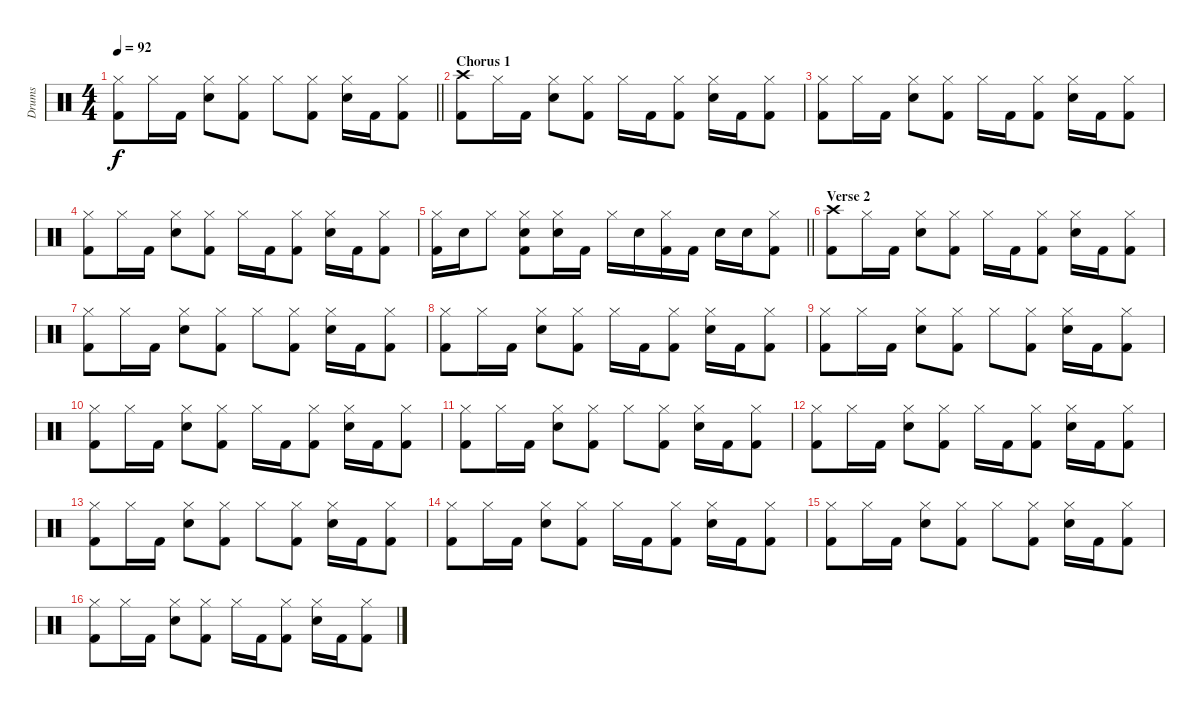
\track ("Drums" "Drums") {instrument percussion}
\staff {score}
\articulation defaults
\ts (4 4)
\tempo 92
\clef neutral
\barLineRight lightlight
\ks c
("Hi-Hat (closed)" "Kick (hit) 2").8{dy f} "Hi-Hat (closed)".16 "Kick (hit) 2".16 ("Hi-Hat (closed)" "Electric Snare (hit)").8 ("Hi-Hat (closed)" "Kick (hit) 2").8 "Hi-Hat (closed)".8 ("Hi-Hat (closed)" "Kick (hit) 2").8 ("Hi-Hat (closed)" "Electric Snare (hit)").16 "Kick (hit) 2".16 ("Hi-Hat (closed)" "Kick (hit) 2").8 |
\section ("" "Chorus 1")
("Crash high (hit)" "Kick (hit) 2").8 "Hi-Hat (closed)".16 "Kick (hit) 2".16 ("Hi-Hat (closed)" "Electric Snare (hit)").8 ("Hi-Hat (closed)" "Kick (hit) 2").8 "Hi-Hat (closed)".16 "Kick (hit) 2".16 ("Hi-Hat (closed)" "Kick (hit) 2").8 ("Hi-Hat (closed)" "Electric Snare (hit)").16 "Kick (hit) 2".16 ("Hi-Hat (closed)" "Kick (hit) 2").8 |
("Hi-Hat (closed)" "Kick (hit) 2").8 "Hi-Hat (closed)".16 "Kick (hit) 2".16 ("Hi-Hat (closed)" "Electric Snare (hit)").8 ("Hi-Hat (closed)" "Kick (hit) 2").8 "Hi-Hat (closed)".16 "Kick (hit) 2".16 ("Hi-Hat (closed)" "Kick (hit) 2").8 ("Hi-Hat (closed)" "Electric Snare (hit)").16 "Kick (hit) 2".16 ("Hi-Hat (closed)" "Kick (hit) 2").8 |
("Hi-Hat (closed)" "Kick (hit) 2").8 "Hi-Hat (closed)".16 "Kick (hit) 2".16 ("Hi-Hat (closed)" "Electric Snare (hit)").8 ("Hi-Hat (closed)" "Kick (hit) 2").8 "Hi-Hat (closed)".16 "Kick (hit) 2".16 ("Hi-Hat (closed)" "Kick (hit) 2").8 ("Hi-Hat (closed)" "Electric Snare (hit)").16 "Kick (hit) 2".16 ("Hi-Hat (closed)" "Kick (hit) 2").8 |
\barLineRight lightlight
("Hi-Hat (closed)" "Kick (hit) 2").16 "Electric Snare (hit)".16 "Hi-Hat (closed)".8 ("Hi-Hat (closed)" "Electric Snare (hit)" "Kick (hit) 2").8 ("Hi-Hat (closed)" "Electric Snare (hit)").16 "Kick (hit) 2".16 "Hi-Hat (closed)".16 "Electric Snare (hit)".16 ("Hi-Hat (closed)" "Kick (hit) 2").16 "Kick (hit) 2".16 "Electric Snare (hit)".16 "Electric Snare (hit)".16 ("Hi-Hat (closed)" "Kick (hit) 2").8 |
\section ("" "Verse 2")
("Crash high (hit)" "Kick (hit) 2").8 "Hi-Hat (closed)".16 "Kick (hit) 2".16 ("Hi-Hat (closed)" "Electric Snare (hit)").8 ("Hi-Hat (closed)" "Kick (hit) 2").8 "Hi-Hat (closed)".16 "Kick (hit) 2".16 ("Hi-Hat (closed)" "Kick (hit) 2").8 ("Hi-Hat (closed)" "Electric Snare (hit)").16 "Kick (hit) 2".16 ("Hi-Hat (closed)" "Kick (hit) 2").8 |
("Hi-Hat (closed)" "Kick (hit) 2").8 "Hi-Hat (closed)".16 "Kick (hit) 2".16 ("Hi-Hat (closed)" "Electric Snare (hit)").8 ("Hi-Hat (closed)" "Kick (hit) 2").8 "Hi-Hat (closed)".8 ("Hi-Hat (closed)" "Kick (hit) 2").8 ("Hi-Hat (closed)" "Electric Snare (hit)").16 "Kick (hit) 2".16 ("Hi-Hat (closed)" "Kick (hit) 2").8 |
("Hi-Hat (closed)" "Kick (hit) 2").8 "Hi-Hat (closed)".16 "Kick (hit) 2".16 ("Hi-Hat (closed)" "Electric Snare (hit)").8 ("Hi-Hat (closed)" "Kick (hit) 2").8 "Hi-Hat (closed)".16 "Kick (hit) 2".16 ("Hi-Hat (closed)" "Kick (hit) 2").8 ("Hi-Hat (closed)" "Electric Snare (hit)").16 "Kick (hit) 2".16 ("Hi-Hat (closed)" "Kick (hit) 2").8 |
("Hi-Hat (closed)" "Kick (hit) 2").8 "Hi-Hat (closed)".16 "Kick (hit) 2".16 ("Hi-Hat (closed)" "Electric Snare (hit)").8 ("Hi-Hat (closed)" "Kick (hit) 2").8 "Hi-Hat (closed)".8 ("Hi-Hat (closed)" "Kick (hit) 2").8 ("Hi-Hat (closed)" "Electric Snare (hit)").16 "Kick (hit) 2".16 ("Hi-Hat (closed)" "Kick (hit) 2").8 |
("Hi-Hat (closed)" "Kick (hit) 2").8 "Hi-Hat (closed)".16 "Kick (hit) 2".16 ("Hi-Hat (closed)" "Electric Snare (hit)").8 ("Hi-Hat (closed)" "Kick (hit) 2").8 "Hi-Hat (closed)".16 "Kick (hit) 2".16 ("Hi-Hat (closed)" "Kick (hit) 2").8 ("Hi-Hat (closed)" "Electric Snare (hit)").16 "Kick (hit) 2".16 ("Hi-Hat (closed)" "Kick (hit) 2").8 |
("Hi-Hat (closed)" "Kick (hit) 2").8 "Hi-Hat (closed)".16 "Kick (hit) 2".16 ("Hi-Hat (closed)" "Electric Snare (hit)").8 ("Hi-Hat (closed)" "Kick (hit) 2").8 "Hi-Hat (closed)".8 ("Hi-Hat (closed)" "Kick (hit) 2").8 ("Hi-Hat (closed)" "Electric Snare (hit)").16 "Kick (hit) 2".16 ("Hi-Hat (closed)" "Kick (hit) 2").8 |
("Hi-Hat (closed)" "Kick (hit) 2").8 "Hi-Hat (closed)".16 "Kick (hit) 2".16 ("Hi-Hat (closed)" "Electric Snare (hit)").8 ("Hi-Hat (closed)" "Kick (hit) 2").8 "Hi-Hat (closed)".16 "Kick (hit) 2".16 ("Hi-Hat (closed)" "Kick (hit) 2").8 ("Hi-Hat (closed)" "Electric Snare (hit)").16 "Kick (hit) 2".16 ("Hi-Hat (closed)" "Kick (hit) 2").8 |
("Hi-Hat (closed)" "Kick (hit) 2").8 "Hi-Hat (closed)".16 "Kick (hit) 2".16 ("Hi-Hat (closed)" "Electric Snare (hit)").8 ("Hi-Hat (closed)" "Kick (hit) 2").8 "Hi-Hat (closed)".8 ("Hi-Hat (closed)" "Kick (hit) 2").8 ("Hi-Hat (closed)" "Electric Snare (hit)").16 "Kick (hit) 2".16 ("Hi-Hat (closed)" "Kick (hit) 2").8 |
("Hi-Hat (closed)" "Kick (hit) 2").8 "Hi-Hat (closed)".16 "Kick (hit) 2".16 ("Hi-Hat (closed)" "Electric Snare (hit)").8 ("Hi-Hat (closed)" "Kick (hit) 2").8 "Hi-Hat (closed)".16 "Kick (hit) 2".16 ("Hi-Hat (closed)" "Kick (hit) 2").8 ("Hi-Hat (closed)" "Electric Snare (hit)").16 "Kick (hit) 2".16 ("Hi-Hat (closed)" "Kick (hit) 2").8 |
("Hi-Hat (closed)" "Kick (hit) 2").8 "Hi-Hat (closed)".16 "Kick (hit) 2".16 ("Hi-Hat (closed)" "Electric Snare (hit)").8 ("Hi-Hat (closed)" "Kick (hit) 2").8 "Hi-Hat (closed)".8 ("Hi-Hat (closed)" "Kick (hit) 2").8 ("Hi-Hat (closed)" "Electric Snare (hit)").16 "Kick (hit) 2".16 ("Hi-Hat (closed)" "Kick (hit) 2").8 |
("Hi-Hat (closed)" "Kick (hit) 2").8 "Hi-Hat (closed)".16 "Kick (hit) 2".16 ("Hi-Hat (closed)" "Electric Snare (hit)").8 ("Hi-Hat (closed)" "Kick (hit) 2").8 "Hi-Hat (closed)".16 "Kick (hit) 2".16 ("Hi-Hat (closed)" "Kick (hit) 2").8 ("Hi-Hat (closed)" "Electric Snare (hit)").16 "Kick (hit) 2".16 ("Hi-Hat (closed)" "Kick (hit) 2").8
